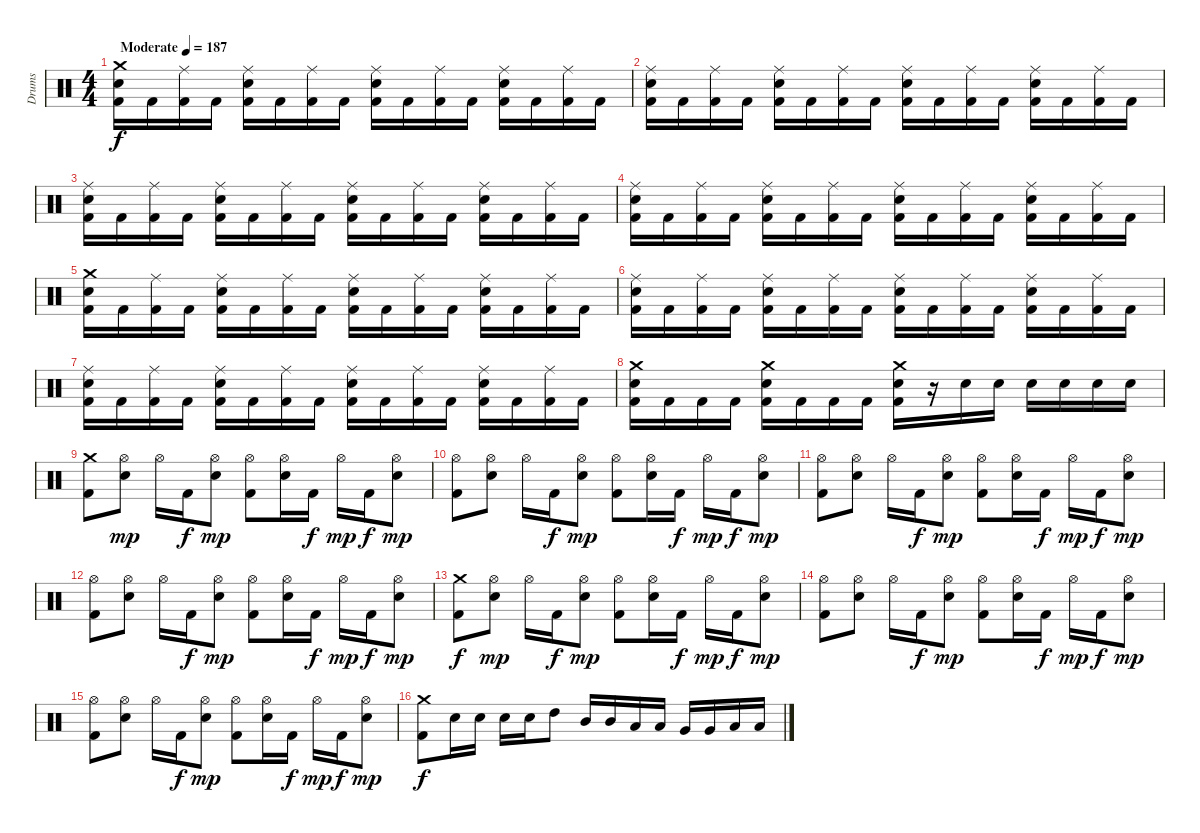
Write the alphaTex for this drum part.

\track ("Drums" "Drums") {instrument percussion}
\staff {score}
\articulation defaults
\ts (4 4)
\tempo (187 "Moderate")
\clef neutral
\ks c
("Crash medium (hit)" "Snare (hit) 2" "Kick (hit) 2").16{dy f} "Kick (hit) 2".16 ("Ride (middle)" "Kick (hit) 2").16 "Kick (hit) 2".16 ("Ride (middle)" "Snare (hit) 2" "Kick (hit) 2").16 "Kick (hit) 2".16 ("Ride (middle)" "Kick (hit) 2").16 "Kick (hit) 2".16 ("Ride (middle)" "Snare (hit) 2" "Kick (hit) 2").16 "Kick (hit) 2".16 ("Ride (middle)" "Kick (hit) 2").16 "Kick (hit) 2".16 ("Ride (middle)" "Snare (hit) 2" "Kick (hit) 2").16 "Kick (hit) 2".16 ("Ride (middle)" "Kick (hit) 2").16 "Kick (hit) 2".16 |
("Ride (middle)" "Snare (hit) 2" "Kick (hit) 2").16 "Kick (hit) 2".16 ("Ride (middle)" "Kick (hit) 2").16 "Kick (hit) 2".16 ("Ride (middle)" "Snare (hit) 2" "Kick (hit) 2").16 "Kick (hit) 2".16 ("Ride (middle)" "Kick (hit) 2").16 "Kick (hit) 2".16 ("Ride (middle)" "Snare (hit) 2" "Kick (hit) 2").16 "Kick (hit) 2".16 ("Ride (middle)" "Kick (hit) 2").16 "Kick (hit) 2".16 ("Ride (middle)" "Snare (hit) 2" "Kick (hit) 2").16 "Kick (hit) 2".16 ("Ride (middle)" "Kick (hit) 2").16 "Kick (hit) 2".16 |
("Ride (middle)" "Snare (hit) 2" "Kick (hit) 2").16 "Kick (hit) 2".16 ("Ride (middle)" "Kick (hit) 2").16 "Kick (hit) 2".16 ("Ride (middle)" "Snare (hit) 2" "Kick (hit) 2").16 "Kick (hit) 2".16 ("Ride (middle)" "Kick (hit) 2").16 "Kick (hit) 2".16 ("Ride (middle)" "Snare (hit) 2" "Kick (hit) 2").16 "Kick (hit) 2".16 ("Ride (middle)" "Kick (hit) 2").16 "Kick (hit) 2".16 ("Ride (middle)" "Snare (hit) 2" "Kick (hit) 2").16 "Kick (hit) 2".16 ("Ride (middle)" "Kick (hit) 2").16 "Kick (hit) 2".16 |
("Ride (middle)" "Snare (hit) 2" "Kick (hit) 2").16 "Kick (hit) 2".16 ("Ride (middle)" "Kick (hit) 2").16 "Kick (hit) 2".16 ("Ride (middle)" "Snare (hit) 2" "Kick (hit) 2").16 "Kick (hit) 2".16 ("Ride (middle)" "Kick (hit) 2").16 "Kick (hit) 2".16 ("Ride (middle)" "Snare (hit) 2" "Kick (hit) 2").16 "Kick (hit) 2".16 ("Ride (middle)" "Kick (hit) 2").16 "Kick (hit) 2".16 ("Ride (middle)" "Snare (hit) 2" "Kick (hit) 2").16 "Kick (hit) 2".16 ("Ride (middle)" "Kick (hit) 2").16 "Kick (hit) 2".16 |
("Crash medium (hit)" "Snare (hit) 2" "Kick (hit) 2").16 "Kick (hit) 2".16 ("Ride (middle)" "Kick (hit) 2").16 "Kick (hit) 2".16 ("Ride (middle)" "Snare (hit) 2" "Kick (hit) 2").16 "Kick (hit) 2".16 ("Ride (middle)" "Kick (hit) 2").16 "Kick (hit) 2".16 ("Ride (middle)" "Snare (hit) 2" "Kick (hit) 2").16 "Kick (hit) 2".16 ("Ride (middle)" "Kick (hit) 2").16 "Kick (hit) 2".16 ("Ride (middle)" "Snare (hit) 2" "Kick (hit) 2").16 "Kick (hit) 2".16 ("Ride (middle)" "Kick (hit) 2").16 "Kick (hit) 2".16 |
("Ride (middle)" "Snare (hit) 2" "Kick (hit) 2").16 "Kick (hit) 2".16 ("Ride (middle)" "Kick (hit) 2").16 "Kick (hit) 2".16 ("Ride (middle)" "Snare (hit) 2" "Kick (hit) 2").16 "Kick (hit) 2".16 ("Ride (middle)" "Kick (hit) 2").16 "Kick (hit) 2".16 ("Ride (middle)" "Snare (hit) 2" "Kick (hit) 2").16 "Kick (hit) 2".16 ("Ride (middle)" "Kick (hit) 2").16 "Kick (hit) 2".16 ("Ride (middle)" "Snare (hit) 2" "Kick (hit) 2").16 "Kick (hit) 2".16 ("Ride (middle)" "Kick (hit) 2").16 "Kick (hit) 2".16 |
("Ride (middle)" "Snare (hit) 2" "Kick (hit) 2").16 "Kick (hit) 2".16 ("Ride (middle)" "Kick (hit) 2").16 "Kick (hit) 2".16 ("Ride (middle)" "Snare (hit) 2" "Kick (hit) 2").16 "Kick (hit) 2".16 ("Ride (middle)" "Kick (hit) 2").16 "Kick (hit) 2".16 ("Ride (middle)" "Snare (hit) 2" "Kick (hit) 2").16 "Kick (hit) 2".16 ("Ride (middle)" "Kick (hit) 2").16 "Kick (hit) 2".16 ("Ride (middle)" "Snare (hit) 2" "Kick (hit) 2").16 "Kick (hit) 2".16 ("Ride (middle)" "Kick (hit) 2").16 "Kick (hit) 2".16 |
("Crash medium (hit)" "Snare (hit) 2" "Kick (hit) 2").16 "Kick (hit) 2".16 "Kick (hit) 2".16 "Kick (hit) 2".16 ("Crash medium (hit)" "Snare (hit) 2" "Kick (hit) 2").16 "Kick (hit) 2".16 "Kick (hit) 2".16 "Kick (hit) 2".16 ("Crash medium (hit)" "Snare (hit) 2" "Kick (hit) 2").16 r.16 "Snare (hit) 2".16 "Snare (hit) 2".16 "Snare (hit) 2".16 "Snare (hit) 2".16 "Snare (hit) 2".16 "Snare (hit) 2".16 |
("Crash medium (hit)" "Kick (hit) 2").8 ("Hi-Hat (open)" "Snare (hit) 2").8{dy mp} "Hi-Hat (open)".16 "Kick (hit) 2".16{dy f} ("Hi-Hat (open)" "Snare (hit) 2").8{dy mp} ("Hi-Hat (open)" "Kick (hit) 2").8 ("Hi-Hat (open)" "Snare (hit) 2").16 "Kick (hit) 2".16{dy f} "Hi-Hat (open)".16{dy mp} "Kick (hit) 2".16{dy f} ("Hi-Hat (open)" "Snare (hit) 2").8{dy mp} |
("Hi-Hat (open)" "Kick (hit) 2").8 ("Hi-Hat (open)" "Snare (hit) 2").8 "Hi-Hat (open)".16 "Kick (hit) 2".16{dy f} ("Hi-Hat (open)" "Snare (hit) 2").8{dy mp} ("Hi-Hat (open)" "Kick (hit) 2").8 ("Hi-Hat (open)" "Snare (hit) 2").16 "Kick (hit) 2".16{dy f} "Hi-Hat (open)".16{dy mp} "Kick (hit) 2".16{dy f} ("Hi-Hat (open)" "Snare (hit) 2").8{dy mp} |
("Hi-Hat (open)" "Kick (hit) 2").8 ("Hi-Hat (open)" "Snare (hit) 2").8 "Hi-Hat (open)".16 "Kick (hit) 2".16{dy f} ("Hi-Hat (open)" "Snare (hit) 2").8{dy mp} ("Hi-Hat (open)" "Kick (hit) 2").8 ("Hi-Hat (open)" "Snare (hit) 2").16 "Kick (hit) 2".16{dy f} "Hi-Hat (open)".16{dy mp} "Kick (hit) 2".16{dy f} ("Hi-Hat (open)" "Snare (hit) 2").8{dy mp} |
("Hi-Hat (open)" "Kick (hit) 2").8 ("Hi-Hat (open)" "Snare (hit) 2").8 "Hi-Hat (open)".16 "Kick (hit) 2".16{dy f} ("Hi-Hat (open)" "Snare (hit) 2").8{dy mp} ("Hi-Hat (open)" "Kick (hit) 2").8 ("Hi-Hat (open)" "Snare (hit) 2").16 "Kick (hit) 2".16{dy f} "Hi-Hat (open)".16{dy mp} "Kick (hit) 2".16{dy f} ("Hi-Hat (open)" "Snare (hit) 2").8{dy mp} |
("Crash medium (hit)" "Kick (hit) 2").8{dy f} ("Hi-Hat (open)" "Snare (hit) 2").8{dy mp} "Hi-Hat (open)".16 "Kick (hit) 2".16{dy f} ("Hi-Hat (open)" "Snare (hit) 2").8{dy mp} ("Hi-Hat (open)" "Kick (hit) 2").8 ("Hi-Hat (open)" "Snare (hit) 2").16 "Kick (hit) 2".16{dy f} "Hi-Hat (open)".16{dy mp} "Kick (hit) 2".16{dy f} ("Hi-Hat (open)" "Snare (hit) 2").8{dy mp} |
("Hi-Hat (open)" "Kick (hit) 2").8 ("Hi-Hat (open)" "Snare (hit) 2").8 "Hi-Hat (open)".16 "Kick (hit) 2".16{dy f} ("Hi-Hat (open)" "Snare (hit) 2").8{dy mp} ("Hi-Hat (open)" "Kick (hit) 2").8 ("Hi-Hat (open)" "Snare (hit) 2").16 "Kick (hit) 2".16{dy f} "Hi-Hat (open)".16{dy mp} "Kick (hit) 2".16{dy f} ("Hi-Hat (open)" "Snare (hit) 2").8{dy mp} |
("Hi-Hat (open)" "Kick (hit) 2").8 ("Hi-Hat (open)" "Snare (hit) 2").8 "Hi-Hat (open)".16 "Kick (hit) 2".16{dy f} ("Hi-Hat (open)" "Snare (hit) 2").8{dy mp} ("Hi-Hat (open)" "Kick (hit) 2").8 ("Hi-Hat (open)" "Snare (hit) 2").16 "Kick (hit) 2".16{dy f} "Hi-Hat (open)".16{dy mp} "Kick (hit) 2".16{dy f} ("Hi-Hat (open)" "Snare (hit) 2").8{dy mp} |
("Crash medium (hit)" "Kick (hit) 2").8{dy f} "Snare (hit) 2".16 "Snare (hit) 2".16 "Snare (hit) 2".16 "Snare (hit) 2".16 "High Tom (hit)".8 "Mid Tom (hit)".16 "Mid Tom (hit)".16 "Low Tom (hit)".16 "Low Tom (hit)".16 "Very Low Tom (hit)".16 "Very Low Tom (hit)".16 "Low Floor Tom (hit)".16 "Low Floor Tom (hit)".16
